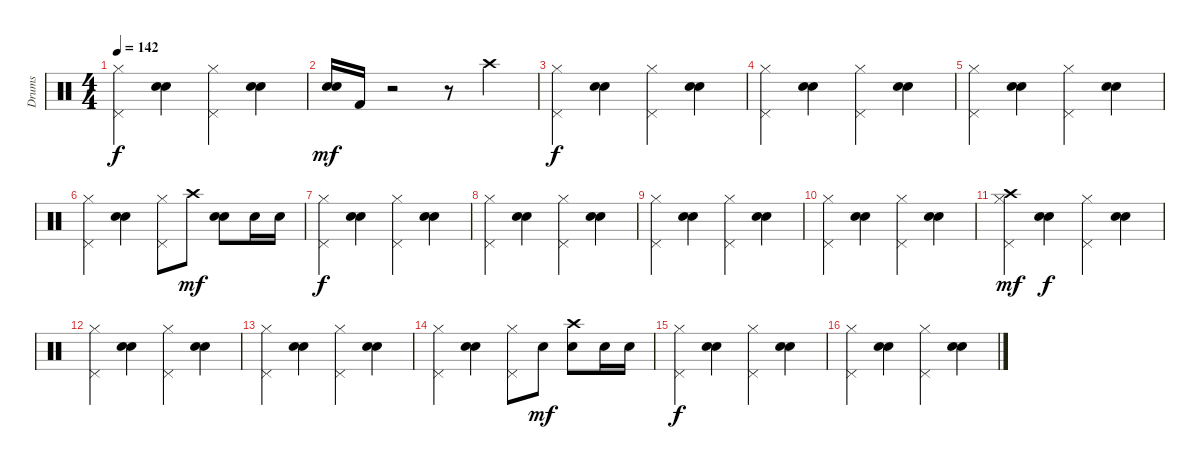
\track ("Drums" "Drums") {instrument percussion}
\staff {score}
\articulation defaults
\ts (4 4)
\tempo 142
\clef neutral
\ks c
("Hi-Hat (closed)" "Pedal Hi-Hat (hit)").4{dy f} ("Snare (hit) 2" "Electric Snare (hit)").4 ("Hi-Hat (closed)" "Pedal Hi-Hat (hit)").4 ("Snare (hit) 2" "Electric Snare (hit)").4 |
("Electric Snare (hit)" "Snare (hit) 2").16{dy mf} "Kick (hit) 2".16 r.2 r.8 "Crash high (hit)".4 |
("Hi-Hat (closed)" "Pedal Hi-Hat (hit)").4{dy f} ("Snare (hit) 2" "Electric Snare (hit)").4 ("Hi-Hat (closed)" "Pedal Hi-Hat (hit)").4 ("Snare (hit) 2" "Electric Snare (hit)").4 |
("Hi-Hat (closed)" "Pedal Hi-Hat (hit)").4 ("Snare (hit) 2" "Electric Snare (hit)").4 ("Hi-Hat (closed)" "Pedal Hi-Hat (hit)").4 ("Snare (hit) 2" "Electric Snare (hit)").4 |
("Hi-Hat (closed)" "Pedal Hi-Hat (hit)").4 ("Snare (hit) 2" "Electric Snare (hit)").4 ("Hi-Hat (closed)" "Pedal Hi-Hat (hit)").4 ("Snare (hit) 2" "Electric Snare (hit)").4 |
("Hi-Hat (closed)" "Pedal Hi-Hat (hit)").4 ("Snare (hit) 2" "Electric Snare (hit)").4 ("Hi-Hat (closed)" "Pedal Hi-Hat (hit)").8 "Crash high (hit)".8{dy mf} ("Snare (hit) 2" "Electric Snare (hit)").8 "Snare (hit) 2".16 "Snare (hit) 2".16 |
("Hi-Hat (closed)" "Pedal Hi-Hat (hit)").4{dy f} ("Snare (hit) 2" "Electric Snare (hit)").4 ("Hi-Hat (closed)" "Pedal Hi-Hat (hit)").4 ("Snare (hit) 2" "Electric Snare (hit)").4 |
("Hi-Hat (closed)" "Pedal Hi-Hat (hit)").4 ("Snare (hit) 2" "Electric Snare (hit)").4 ("Hi-Hat (closed)" "Pedal Hi-Hat (hit)").4 ("Snare (hit) 2" "Electric Snare (hit)").4 |
("Hi-Hat (closed)" "Pedal Hi-Hat (hit)").4 ("Snare (hit) 2" "Electric Snare (hit)").4 ("Hi-Hat (closed)" "Pedal Hi-Hat (hit)").4 ("Snare (hit) 2" "Electric Snare (hit)").4 |
("Hi-Hat (closed)" "Pedal Hi-Hat (hit)").4 ("Snare (hit) 2" "Electric Snare (hit)").4 ("Hi-Hat (closed)" "Pedal Hi-Hat (hit)").4 ("Snare (hit) 2" "Electric Snare (hit)").4 |
("Crash high (hit)" "Hi-Hat (closed)" "Pedal Hi-Hat (hit)").4{dy mf} ("Snare (hit) 2" "Electric Snare (hit)").4{dy f} ("Hi-Hat (closed)" "Pedal Hi-Hat (hit)").4 ("Snare (hit) 2" "Electric Snare (hit)").4 |
("Hi-Hat (closed)" "Pedal Hi-Hat (hit)").4 ("Snare (hit) 2" "Electric Snare (hit)").4 ("Hi-Hat (closed)" "Pedal Hi-Hat (hit)").4 ("Snare (hit) 2" "Electric Snare (hit)").4 |
("Hi-Hat (closed)" "Pedal Hi-Hat (hit)").4 ("Snare (hit) 2" "Electric Snare (hit)").4 ("Hi-Hat (closed)" "Pedal Hi-Hat (hit)").4 ("Snare (hit) 2" "Electric Snare (hit)").4 |
("Hi-Hat (closed)" "Pedal Hi-Hat (hit)").4 ("Snare (hit) 2" "Electric Snare (hit)").4 ("Hi-Hat (closed)" "Pedal Hi-Hat (hit)").8 "Snare (hit) 2".8{dy mf} ("Crash high (hit)" "Snare (hit) 2").8 "Snare (hit) 2".16 "Snare (hit) 2".16 |
("Hi-Hat (closed)" "Pedal Hi-Hat (hit)").4{dy f} ("Snare (hit) 2" "Electric Snare (hit)").4 ("Hi-Hat (closed)" "Pedal Hi-Hat (hit)").4 ("Snare (hit) 2" "Electric Snare (hit)").4 |
("Hi-Hat (closed)" "Pedal Hi-Hat (hit)").4 ("Snare (hit) 2" "Electric Snare (hit)").4 ("Hi-Hat (closed)" "Pedal Hi-Hat (hit)").4 ("Snare (hit) 2" "Electric Snare (hit)").4
